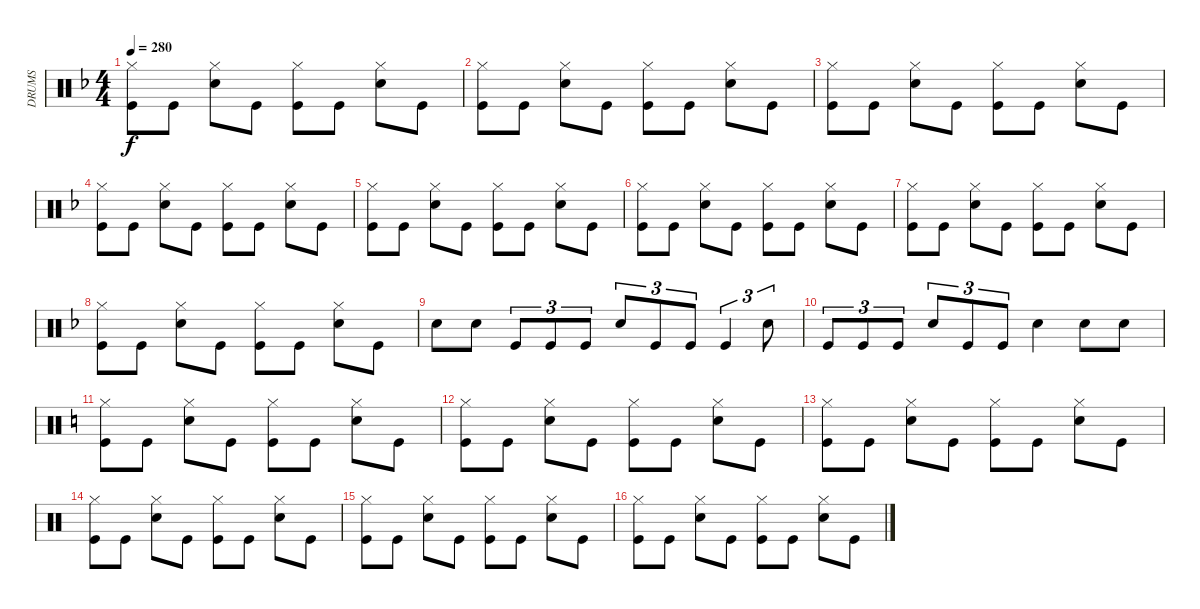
\track ("DRUMS" "DRUMS") {instrument percussion}
\staff {score}
\articulation defaults
\ts (4 4)
\tempo 280
\clef neutral
\ks dminor
("Hi-Hat (closed)" "Kick (hit)").8{dy f} "Kick (hit)".8 ("Hi-Hat (closed)" "Snare (hit) 2").8 "Kick (hit)".8 ("Hi-Hat (closed)" "Kick (hit)").8 "Kick (hit)".8 ("Hi-Hat (closed)" "Snare (hit) 2").8 "Kick (hit)".8 |
("Hi-Hat (closed)" "Kick (hit)").8 "Kick (hit)".8 ("Hi-Hat (closed)" "Snare (hit) 2").8 "Kick (hit)".8 ("Hi-Hat (closed)" "Kick (hit)").8 "Kick (hit)".8 ("Hi-Hat (closed)" "Snare (hit) 2").8 "Kick (hit)".8 |
("Hi-Hat (closed)" "Kick (hit)").8 "Kick (hit)".8 ("Hi-Hat (closed)" "Snare (hit) 2").8 "Kick (hit)".8 ("Hi-Hat (closed)" "Kick (hit)").8 "Kick (hit)".8 ("Hi-Hat (closed)" "Snare (hit) 2").8 "Kick (hit)".8 |
("Hi-Hat (closed)" "Kick (hit)").8 "Kick (hit)".8 ("Hi-Hat (closed)" "Snare (hit) 2").8 "Kick (hit)".8 ("Hi-Hat (closed)" "Kick (hit)").8 "Kick (hit)".8 ("Hi-Hat (closed)" "Snare (hit) 2").8 "Kick (hit)".8 |
("Hi-Hat (closed)" "Kick (hit)").8 "Kick (hit)".8 ("Hi-Hat (closed)" "Snare (hit) 2").8 "Kick (hit)".8 ("Hi-Hat (closed)" "Kick (hit)").8 "Kick (hit)".8 ("Hi-Hat (closed)" "Snare (hit) 2").8 "Kick (hit)".8 |
("Hi-Hat (closed)" "Kick (hit)").8 "Kick (hit)".8 ("Hi-Hat (closed)" "Snare (hit) 2").8 "Kick (hit)".8 ("Hi-Hat (closed)" "Kick (hit)").8 "Kick (hit)".8 ("Hi-Hat (closed)" "Snare (hit) 2").8 "Kick (hit)".8 |
("Hi-Hat (closed)" "Kick (hit)").8 "Kick (hit)".8 ("Hi-Hat (closed)" "Snare (hit) 2").8 "Kick (hit)".8 ("Hi-Hat (closed)" "Kick (hit)").8 "Kick (hit)".8 ("Hi-Hat (closed)" "Snare (hit) 2").8 "Kick (hit)".8 |
("Hi-Hat (closed)" "Kick (hit)").8 "Kick (hit)".8 ("Hi-Hat (closed)" "Snare (hit) 2").8 "Kick (hit)".8 ("Hi-Hat (closed)" "Kick (hit)").8 "Kick (hit)".8 ("Hi-Hat (closed)" "Snare (hit) 2").8 "Kick (hit)".8 |
"Snare (hit) 2".8 "Snare (hit) 2".8 "Kick (hit)".8{tu (3 2)} "Kick (hit)".8{tu (3 2)} "Kick (hit)".8{tu (3 2)} "Snare (hit) 2".8{tu (3 2)} "Kick (hit)".8{tu (3 2)} "Kick (hit)".8{tu (3 2)} "Kick (hit)".4{tu (3 2)} "Snare (hit) 2".8{tu (3 2)} |
"Kick (hit)".8{tu (3 2)} "Kick (hit)".8{tu (3 2)} "Kick (hit)".8{tu (3 2)} "Snare (hit) 2".8{tu (3 2)} "Kick (hit)".8{tu (3 2)} "Kick (hit)".8{tu (3 2)} "Snare (hit) 2".4 "Snare (hit) 2".8 "Snare (hit) 2".8 |
\ks c
("Hi-Hat (closed)" "Kick (hit)").8 "Kick (hit)".8 ("Hi-Hat (closed)" "Snare (hit) 2").8 "Kick (hit)".8 ("Hi-Hat (closed)" "Kick (hit)").8 "Kick (hit)".8 ("Hi-Hat (closed)" "Snare (hit) 2").8 "Kick (hit)".8 |
("Hi-Hat (closed)" "Kick (hit)").8 "Kick (hit)".8 ("Hi-Hat (closed)" "Snare (hit) 2").8 "Kick (hit)".8 ("Hi-Hat (closed)" "Kick (hit)").8 "Kick (hit)".8 ("Hi-Hat (closed)" "Snare (hit) 2").8 "Kick (hit)".8 |
("Hi-Hat (closed)" "Kick (hit)").8 "Kick (hit)".8 ("Hi-Hat (closed)" "Snare (hit) 2").8 "Kick (hit)".8 ("Hi-Hat (closed)" "Kick (hit)").8 "Kick (hit)".8 ("Hi-Hat (closed)" "Snare (hit) 2").8 "Kick (hit)".8 |
("Hi-Hat (closed)" "Kick (hit)").8 "Kick (hit)".8 ("Hi-Hat (closed)" "Snare (hit) 2").8 "Kick (hit)".8 ("Hi-Hat (closed)" "Kick (hit)").8 "Kick (hit)".8 ("Hi-Hat (closed)" "Snare (hit) 2").8 "Kick (hit)".8 |
("Hi-Hat (closed)" "Kick (hit)").8 "Kick (hit)".8 ("Hi-Hat (closed)" "Snare (hit) 2").8 "Kick (hit)".8 ("Hi-Hat (closed)" "Kick (hit)").8 "Kick (hit)".8 ("Hi-Hat (closed)" "Snare (hit) 2").8 "Kick (hit)".8 |
("Hi-Hat (closed)" "Kick (hit)").8 "Kick (hit)".8 ("Hi-Hat (closed)" "Snare (hit) 2").8 "Kick (hit)".8 ("Hi-Hat (closed)" "Kick (hit)").8 "Kick (hit)".8 ("Hi-Hat (closed)" "Snare (hit) 2").8 "Kick (hit)".8
